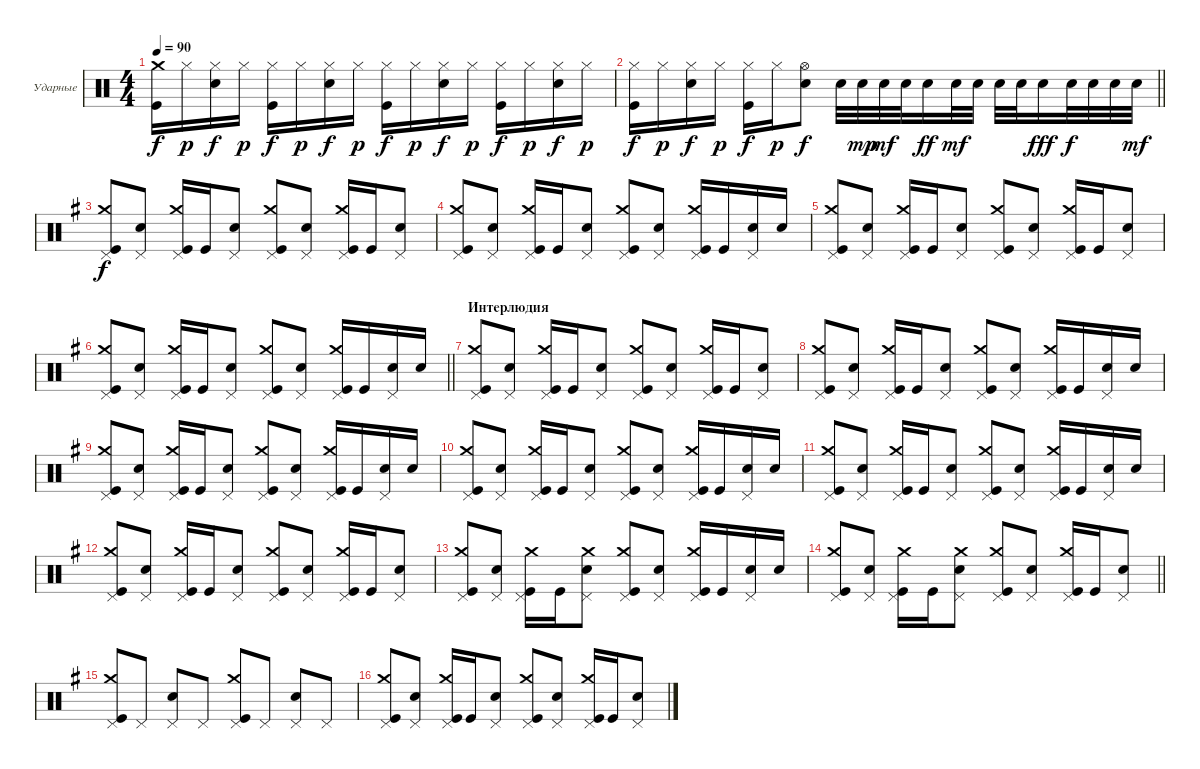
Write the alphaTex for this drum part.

\bracketExtendMode groupsimilarinstruments
\firstSystemTrackNameOrientation horizontal
\otherSystemsTrackNameOrientation horizontal
\track ("Александр Львов" "Ударные") {instrument percussion}
\staff {score}
\articulation defaults
\ts (4 4)
\tempo 90
\clef neutral
\ks c
("Kick (hit)" "Crash medium (hit)").16{dy f} "Hi-Hat (closed)".16{dy p} ("Hi-Hat (closed)" "Snare (hit) 2").16{dy f} "Hi-Hat (closed)".16{dy p} ("Hi-Hat (closed)" "Kick (hit)").16{dy f} "Hi-Hat (closed)".16{dy p} ("Hi-Hat (closed)" "Snare (hit) 2").16{dy f} "Hi-Hat (closed)".16{dy p} ("Hi-Hat (closed)" "Kick (hit)").16{dy f} "Hi-Hat (closed)".16{dy p} ("Hi-Hat (closed)" "Snare (hit) 2").16{dy f} "Hi-Hat (closed)".16{dy p} ("Hi-Hat (closed)" "Kick (hit)").16{dy f} "Hi-Hat (closed)".16{dy p} ("Hi-Hat (closed)" "Snare (hit) 2").16{dy f} "Hi-Hat (closed)".16{dy p} |
\barLineRight lightlight
("Kick (hit)" "Hi-Hat (closed)").16{dy f} "Hi-Hat (closed)".16{dy p} ("Hi-Hat (closed)" "Snare (hit) 2").16{dy f} "Hi-Hat (closed)".16{dy p} ("Hi-Hat (closed)" "Kick (hit)").16{dy f} "Hi-Hat (closed)".16{dy p} ("Hi-Hat (open)" "Snare (hit) 2").8{dy f} "Snare (hit) 2".32 "Snare (hit) 2".32{dy mp} "Snare (hit) 2".32{dy mf} "Snare (hit) 2".32 "Snare (hit) 2".16{dy ff} "Snare (hit) 2".32{dy mf} "Snare (hit) 2".32 "Snare (hit) 2".32 "Snare (hit) 2".32 "Snare (hit) 2".16{dy fff} "Snare (hit) 2".32{dy f} "Snare (hit) 2".32 "Snare (hit) 2".32 "Snare (hit) 2".32{dy mf} |
\ks eminor
("Kick (hit)" "Crash medium (hit)" "Pedal Hi-Hat (hit)").8{dy f} ("Snare (hit) 2" "Pedal Hi-Hat (hit)").8 ("Kick (hit)" "Crash medium (hit)" "Pedal Hi-Hat (hit)").16 "Kick (hit)".16 ("Snare (hit) 2" "Pedal Hi-Hat (hit)").8 ("Kick (hit)" "Crash medium (hit)" "Pedal Hi-Hat (hit)").8 ("Snare (hit) 2" "Pedal Hi-Hat (hit)").8 ("Kick (hit)" "Crash medium (hit)" "Pedal Hi-Hat (hit)").16 "Kick (hit)".16 ("Snare (hit) 2" "Pedal Hi-Hat (hit)").8 |
("Kick (hit)" "Crash medium (hit)" "Pedal Hi-Hat (hit)").8 ("Snare (hit) 2" "Pedal Hi-Hat (hit)").8 ("Kick (hit)" "Crash medium (hit)" "Pedal Hi-Hat (hit)").16 "Kick (hit)".16 ("Snare (hit) 2" "Pedal Hi-Hat (hit)").8 ("Kick (hit)" "Crash medium (hit)" "Pedal Hi-Hat (hit)").8 ("Snare (hit) 2" "Pedal Hi-Hat (hit)").8 ("Kick (hit)" "Crash medium (hit)" "Pedal Hi-Hat (hit)").16 "Kick (hit)".16 ("Snare (hit) 2" "Pedal Hi-Hat (hit)").16 "Snare (hit) 2".16 |
("Kick (hit)" "Crash medium (hit)" "Pedal Hi-Hat (hit)").8 ("Snare (hit) 2" "Pedal Hi-Hat (hit)").8 ("Kick (hit)" "Crash medium (hit)" "Pedal Hi-Hat (hit)").16 "Kick (hit)".16 ("Snare (hit) 2" "Pedal Hi-Hat (hit)").8 ("Kick (hit)" "Crash medium (hit)" "Pedal Hi-Hat (hit)").8 ("Snare (hit) 2" "Pedal Hi-Hat (hit)").8 ("Kick (hit)" "Crash medium (hit)" "Pedal Hi-Hat (hit)").16 "Kick (hit)".16 ("Snare (hit) 2" "Pedal Hi-Hat (hit)").8 |
\barLineRight lightlight
("Kick (hit)" "Crash medium (hit)" "Pedal Hi-Hat (hit)").8 ("Snare (hit) 2" "Pedal Hi-Hat (hit)").8 ("Kick (hit)" "Crash medium (hit)" "Pedal Hi-Hat (hit)").16 "Kick (hit)".16 ("Snare (hit) 2" "Pedal Hi-Hat (hit)").8 ("Kick (hit)" "Crash medium (hit)" "Pedal Hi-Hat (hit)").8 ("Snare (hit) 2" "Pedal Hi-Hat (hit)").8 ("Kick (hit)" "Crash medium (hit)" "Pedal Hi-Hat (hit)").16 "Kick (hit)".16 ("Snare (hit) 2" "Pedal Hi-Hat (hit)").16 "Snare (hit) 2".16 |
\section ("" "Интерлюдия")
("Kick (hit)" "Crash medium (hit)" "Pedal Hi-Hat (hit)").8 ("Snare (hit) 2" "Pedal Hi-Hat (hit)").8 ("Kick (hit)" "Crash medium (hit)" "Pedal Hi-Hat (hit)").16 "Kick (hit)".16 ("Snare (hit) 2" "Pedal Hi-Hat (hit)").8 ("Kick (hit)" "Crash medium (hit)" "Pedal Hi-Hat (hit)").8 ("Snare (hit) 2" "Pedal Hi-Hat (hit)").8 ("Kick (hit)" "Crash medium (hit)" "Pedal Hi-Hat (hit)").16 "Kick (hit)".16 ("Snare (hit) 2" "Pedal Hi-Hat (hit)").8 |
("Kick (hit)" "Crash medium (hit)" "Pedal Hi-Hat (hit)").8 ("Snare (hit) 2" "Pedal Hi-Hat (hit)").8 ("Kick (hit)" "Crash medium (hit)" "Pedal Hi-Hat (hit)").16 "Kick (hit)".16 ("Snare (hit) 2" "Pedal Hi-Hat (hit)").8 ("Kick (hit)" "Crash medium (hit)" "Pedal Hi-Hat (hit)").8 ("Snare (hit) 2" "Pedal Hi-Hat (hit)").8 ("Kick (hit)" "Crash medium (hit)" "Pedal Hi-Hat (hit)").16 "Kick (hit)".16 ("Snare (hit) 2" "Pedal Hi-Hat (hit)").16 "Snare (hit) 2".16 |
("Kick (hit)" "Crash medium (hit)" "Pedal Hi-Hat (hit)").8 ("Snare (hit) 2" "Pedal Hi-Hat (hit)").8 ("Kick (hit)" "Crash medium (hit)" "Pedal Hi-Hat (hit)").16 "Kick (hit)".16 ("Snare (hit) 2" "Pedal Hi-Hat (hit)").8 ("Kick (hit)" "Crash medium (hit)" "Pedal Hi-Hat (hit)").8 ("Snare (hit) 2" "Pedal Hi-Hat (hit)").8 ("Kick (hit)" "Crash medium (hit)" "Pedal Hi-Hat (hit)").16 "Kick (hit)".16 ("Snare (hit) 2" "Pedal Hi-Hat (hit)").16 "Snare (hit) 2".16 |
("Kick (hit)" "Crash medium (hit)" "Pedal Hi-Hat (hit)").8 ("Snare (hit) 2" "Pedal Hi-Hat (hit)").8 ("Kick (hit)" "Crash medium (hit)" "Pedal Hi-Hat (hit)").16 "Kick (hit)".16 ("Snare (hit) 2" "Pedal Hi-Hat (hit)").8 ("Kick (hit)" "Crash medium (hit)" "Pedal Hi-Hat (hit)").8 ("Snare (hit) 2" "Pedal Hi-Hat (hit)").8 ("Kick (hit)" "Crash medium (hit)" "Pedal Hi-Hat (hit)").16 "Kick (hit)".16 ("Snare (hit) 2" "Pedal Hi-Hat (hit)").16 "Snare (hit) 2".16 |
("Kick (hit)" "Crash medium (hit)" "Pedal Hi-Hat (hit)").8 ("Snare (hit) 2" "Pedal Hi-Hat (hit)").8 ("Kick (hit)" "Crash medium (hit)" "Pedal Hi-Hat (hit)").16 "Kick (hit)".16 ("Snare (hit) 2" "Pedal Hi-Hat (hit)").8 ("Kick (hit)" "Crash medium (hit)" "Pedal Hi-Hat (hit)").8 ("Snare (hit) 2" "Pedal Hi-Hat (hit)").8 ("Kick (hit)" "Crash medium (hit)" "Pedal Hi-Hat (hit)").16 "Kick (hit)".16 ("Snare (hit) 2" "Pedal Hi-Hat (hit)").16 "Snare (hit) 2".16 |
("Kick (hit)" "Crash medium (hit)" "Pedal Hi-Hat (hit)").8 ("Snare (hit) 2" "Pedal Hi-Hat (hit)").8 ("Kick (hit)" "Crash medium (hit)" "Pedal Hi-Hat (hit)").16 "Kick (hit)".16 ("Snare (hit) 2" "Pedal Hi-Hat (hit)").8 ("Kick (hit)" "Crash medium (hit)" "Pedal Hi-Hat (hit)").8 ("Snare (hit) 2" "Pedal Hi-Hat (hit)").8 ("Kick (hit)" "Crash medium (hit)" "Pedal Hi-Hat (hit)").16 "Kick (hit)".16 ("Snare (hit) 2" "Pedal Hi-Hat (hit)").8 |
("Kick (hit)" "Crash medium (hit)" "Pedal Hi-Hat (hit)").8 ("Snare (hit) 2" "Pedal Hi-Hat (hit)").8 ("Kick (hit)" "Crash medium (hit)" "Pedal Hi-Hat (hit)").16 "Kick (hit)".16 ("Snare (hit) 2" "Crash medium (hit)" "Pedal Hi-Hat (hit)").8 ("Kick (hit)" "Crash medium (hit)" "Pedal Hi-Hat (hit)").8 ("Snare (hit) 2" "Pedal Hi-Hat (hit)").8 ("Kick (hit)" "Crash medium (hit)" "Pedal Hi-Hat (hit)").16 "Kick (hit)".16 ("Snare (hit) 2" "Pedal Hi-Hat (hit)").16 "Snare (hit) 2".16 |
\barLineRight lightlight
("Kick (hit)" "Crash medium (hit)" "Pedal Hi-Hat (hit)").8 ("Snare (hit) 2" "Pedal Hi-Hat (hit)").8 ("Kick (hit)" "Crash medium (hit)" "Pedal Hi-Hat (hit)").16 "Kick (hit)".16 ("Snare (hit) 2" "Crash medium (hit)" "Pedal Hi-Hat (hit)").8 ("Kick (hit)" "Crash medium (hit)" "Pedal Hi-Hat (hit)").8 ("Snare (hit) 2" "Pedal Hi-Hat (hit)").8 ("Kick (hit)" "Crash medium (hit)" "Pedal Hi-Hat (hit)").16 "Kick (hit)".16 ("Snare (hit) 2" "Pedal Hi-Hat (hit)").8 |
("Kick (hit)" "Crash medium (hit)" "Pedal Hi-Hat (hit)").8 "Pedal Hi-Hat (hit)".8 ("Pedal Hi-Hat (hit)" "Snare (hit) 2").8 "Pedal Hi-Hat (hit)".8 ("Kick (hit)" "Pedal Hi-Hat (hit)" "Crash medium (hit)").8 "Pedal Hi-Hat (hit)".8 ("Snare (hit) 2" "Pedal Hi-Hat (hit)").8 "Pedal Hi-Hat (hit)".8 |
("Kick (hit)" "Crash medium (hit)" "Pedal Hi-Hat (hit)").8 ("Snare (hit) 2" "Pedal Hi-Hat (hit)").8 ("Kick (hit)" "Crash medium (hit)" "Pedal Hi-Hat (hit)").16 "Kick (hit)".16 ("Snare (hit) 2" "Pedal Hi-Hat (hit)").8 ("Kick (hit)" "Crash medium (hit)" "Pedal Hi-Hat (hit)").8 ("Snare (hit) 2" "Pedal Hi-Hat (hit)").8 ("Kick (hit)" "Crash medium (hit)" "Pedal Hi-Hat (hit)").16 "Kick (hit)".16 ("Snare (hit) 2" "Pedal Hi-Hat (hit)").8
